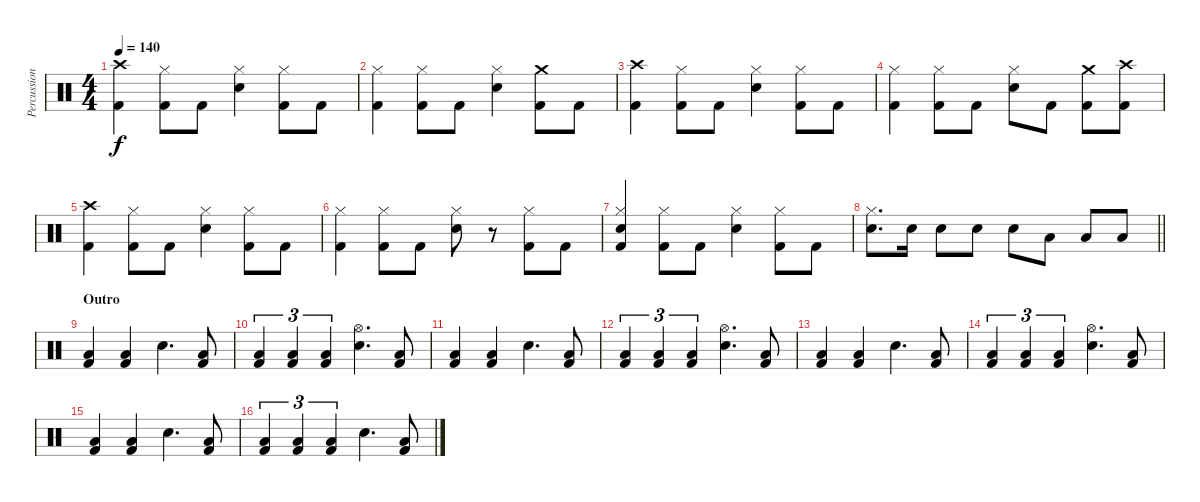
\track ("Percussion (LP III)" "Percussion") {instrument percussion}
\staff {score}
\articulation defaults
\ts (4 4)
\section ("" " ")
\tempo 140
\clef neutral
\ks c
("Crash high (hit)" "Kick (hit) 2").4{dy f} ("Hi-Hat (closed)" "Kick (hit) 2").8 "Kick (hit) 2".8 ("Hi-Hat (closed)" "Snare (hit) 2").4 ("Hi-Hat (closed)" "Kick (hit) 2").8 "Kick (hit) 2".8 |
("Hi-Hat (closed)" "Kick (hit) 2").4 ("Hi-Hat (closed)" "Kick (hit) 2").8 "Kick (hit) 2".8 ("Hi-Hat (closed)" "Snare (hit) 2").4 ("Crash medium (hit)" "Kick (hit) 2").8 "Kick (hit) 2".8 |
("Crash high (hit)" "Kick (hit) 2").4 ("Hi-Hat (closed)" "Kick (hit) 2").8 "Kick (hit) 2".8 ("Hi-Hat (closed)" "Snare (hit) 2").4 ("Hi-Hat (closed)" "Kick (hit) 2").8 "Kick (hit) 2".8 |
("Hi-Hat (closed)" "Kick (hit) 2").4 ("Hi-Hat (closed)" "Kick (hit) 2").8 "Kick (hit) 2".8 ("Hi-Hat (closed)" "Snare (hit) 2").8 "Kick (hit) 2".8 ("Crash medium (hit)" "Kick (hit) 2").8 ("Crash high (hit)" "Kick (hit) 2").8 |
("Crash high (hit)" "Kick (hit) 2").4 ("Hi-Hat (closed)" "Kick (hit) 2").8 "Kick (hit) 2".8 ("Hi-Hat (closed)" "Snare (hit) 2").4 ("Hi-Hat (closed)" "Kick (hit) 2").8 "Kick (hit) 2".8 |
("Hi-Hat (closed)" "Kick (hit) 2").4 ("Hi-Hat (closed)" "Kick (hit) 2").8 "Kick (hit) 2".8 ("Hi-Hat (closed)" "Snare (hit) 2").8 r.8 ("Hi-Hat (closed)" "Kick (hit) 2").8 "Kick (hit) 2".8 |
("Hi-Hat (closed)" "Snare (hit) 2" "Kick (hit) 2").4 ("Hi-Hat (closed)" "Kick (hit) 2").8 "Kick (hit) 2".8 ("Hi-Hat (closed)" "Snare (hit) 2").4 ("Hi-Hat (closed)" "Kick (hit) 2").8 "Kick (hit) 2".8 |
\barLineRight lightlight
("Hi-Hat (closed)" "Snare (hit) 2").8{d} "Snare (hit) 2".16 "Snare (hit) 2".8 "Snare (hit) 2".8 "Snare (hit) 2".8 "Low Tom (hit)".8 "Low Tom (hit)".8 "Low Tom (hit)".8 |
\section ("" "Outro")
("Low Tom (hit)" "Kick (hit) 2").4 ("Low Tom (hit)" "Kick (hit) 2").4 "Snare (hit) 2".4{d} ("Low Tom (hit)" "Kick (hit) 2").8 |
("Low Tom (hit)" "Kick (hit) 2").4{tu (3 2)} ("Low Tom (hit)" "Kick (hit) 2").4{tu (3 2)} ("Low Tom (hit)" "Kick (hit) 2").4{tu (3 2)} ("Hi-Hat (open)" "Snare (hit) 2").4{d} ("Low Tom (hit)" "Kick (hit) 2").8 |
("Low Tom (hit)" "Kick (hit) 2").4 ("Low Tom (hit)" "Kick (hit) 2").4 "Snare (hit) 2".4{d} ("Low Tom (hit)" "Kick (hit) 2").8 |
("Low Tom (hit)" "Kick (hit) 2").4{tu (3 2)} ("Low Tom (hit)" "Kick (hit) 2").4{tu (3 2)} ("Low Tom (hit)" "Kick (hit) 2").4{tu (3 2)} ("Hi-Hat (open)" "Snare (hit) 2").4{d} ("Low Tom (hit)" "Kick (hit) 2").8 |
("Low Tom (hit)" "Kick (hit) 2").4 ("Low Tom (hit)" "Kick (hit) 2").4 "Snare (hit) 2".4{d} ("Low Tom (hit)" "Kick (hit) 2").8 |
("Low Tom (hit)" "Kick (hit) 2").4{tu (3 2)} ("Low Tom (hit)" "Kick (hit) 2").4{tu (3 2)} ("Low Tom (hit)" "Kick (hit) 2").4{tu (3 2)} ("Hi-Hat (open)" "Snare (hit) 2").4{d} ("Low Tom (hit)" "Kick (hit) 2").8 |
("Low Tom (hit)" "Kick (hit) 2").4 ("Low Tom (hit)" "Kick (hit) 2").4 "Snare (hit) 2".4{d} ("Low Tom (hit)" "Kick (hit) 2").8 |
("Low Tom (hit)" "Kick (hit) 2").4{tu (3 2)} ("Low Tom (hit)" "Kick (hit) 2").4{tu (3 2)} ("Low Tom (hit)" "Kick (hit) 2").4{tu (3 2)} "Snare (hit) 2".4{d} ("Low Tom (hit)" "Kick (hit) 2").8
